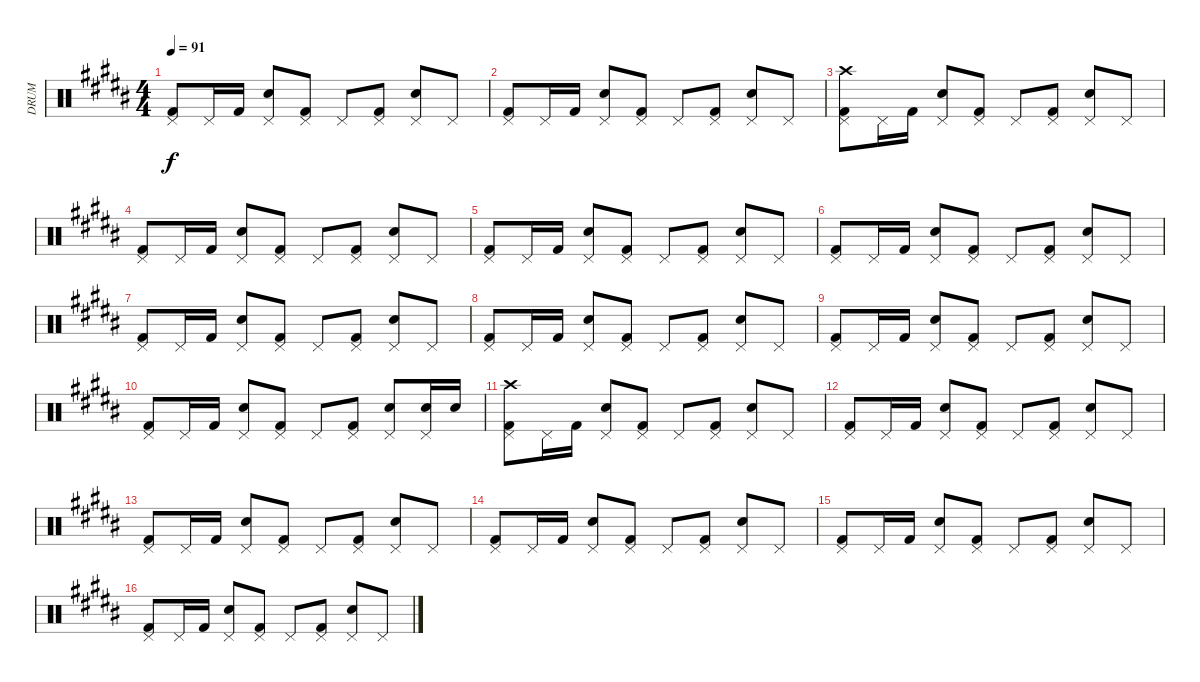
\track ("DRUM" "DRUM") {instrument percussion}
\staff {score}
\articulation defaults
\ts (4 4)
\tempo 91
\clef neutral
\ks b
("Pedal Hi-Hat (hit)" "Kick (hit) 2").8{dy f} "Pedal Hi-Hat (hit)".16 "Kick (hit) 2".16 ("Pedal Hi-Hat (hit)" "Electric Snare (hit)").8 ("Pedal Hi-Hat (hit)" "Kick (hit) 2").8 "Pedal Hi-Hat (hit)".8 ("Pedal Hi-Hat (hit)" "Kick (hit) 2").8 ("Pedal Hi-Hat (hit)" "Electric Snare (hit)").8 "Pedal Hi-Hat (hit)".8 |
("Pedal Hi-Hat (hit)" "Kick (hit) 2").8 "Pedal Hi-Hat (hit)".16 "Kick (hit) 2".16 ("Pedal Hi-Hat (hit)" "Electric Snare (hit)").8 ("Pedal Hi-Hat (hit)" "Kick (hit) 2").8 "Pedal Hi-Hat (hit)".8 ("Pedal Hi-Hat (hit)" "Kick (hit) 2").8 ("Pedal Hi-Hat (hit)" "Electric Snare (hit)").8 "Pedal Hi-Hat (hit)".8 |
("Crash high (hit)" "Pedal Hi-Hat (hit)" "Kick (hit) 2").8 "Pedal Hi-Hat (hit)".16 "Kick (hit) 2".16 ("Pedal Hi-Hat (hit)" "Electric Snare (hit)").8 ("Pedal Hi-Hat (hit)" "Kick (hit) 2").8 "Pedal Hi-Hat (hit)".8 ("Pedal Hi-Hat (hit)" "Kick (hit) 2").8 ("Pedal Hi-Hat (hit)" "Electric Snare (hit)").8 "Pedal Hi-Hat (hit)".8 |
("Pedal Hi-Hat (hit)" "Kick (hit) 2").8 "Pedal Hi-Hat (hit)".16 "Kick (hit) 2".16 ("Pedal Hi-Hat (hit)" "Electric Snare (hit)").8 ("Pedal Hi-Hat (hit)" "Kick (hit) 2").8 "Pedal Hi-Hat (hit)".8 ("Pedal Hi-Hat (hit)" "Kick (hit) 2").8 ("Pedal Hi-Hat (hit)" "Electric Snare (hit)").8 "Pedal Hi-Hat (hit)".8 |
("Pedal Hi-Hat (hit)" "Kick (hit) 2").8 "Pedal Hi-Hat (hit)".16 "Kick (hit) 2".16 ("Pedal Hi-Hat (hit)" "Electric Snare (hit)").8 ("Pedal Hi-Hat (hit)" "Kick (hit) 2").8 "Pedal Hi-Hat (hit)".8 ("Pedal Hi-Hat (hit)" "Kick (hit) 2").8 ("Pedal Hi-Hat (hit)" "Electric Snare (hit)").8 "Pedal Hi-Hat (hit)".8 |
("Pedal Hi-Hat (hit)" "Kick (hit) 2").8 "Pedal Hi-Hat (hit)".16 "Kick (hit) 2".16 ("Pedal Hi-Hat (hit)" "Electric Snare (hit)").8 ("Pedal Hi-Hat (hit)" "Kick (hit) 2").8 "Pedal Hi-Hat (hit)".8 ("Pedal Hi-Hat (hit)" "Kick (hit) 2").8 ("Pedal Hi-Hat (hit)" "Electric Snare (hit)").8 "Pedal Hi-Hat (hit)".8 |
("Pedal Hi-Hat (hit)" "Kick (hit) 2").8 "Pedal Hi-Hat (hit)".16 "Kick (hit) 2".16 ("Pedal Hi-Hat (hit)" "Electric Snare (hit)").8 ("Pedal Hi-Hat (hit)" "Kick (hit) 2").8 "Pedal Hi-Hat (hit)".8 ("Pedal Hi-Hat (hit)" "Kick (hit) 2").8 ("Pedal Hi-Hat (hit)" "Electric Snare (hit)").8 "Pedal Hi-Hat (hit)".8 |
("Pedal Hi-Hat (hit)" "Kick (hit) 2").8 "Pedal Hi-Hat (hit)".16 "Kick (hit) 2".16 ("Pedal Hi-Hat (hit)" "Electric Snare (hit)").8 ("Pedal Hi-Hat (hit)" "Kick (hit) 2").8 "Pedal Hi-Hat (hit)".8 ("Pedal Hi-Hat (hit)" "Kick (hit) 2").8 ("Pedal Hi-Hat (hit)" "Electric Snare (hit)").8 "Pedal Hi-Hat (hit)".8 |
("Pedal Hi-Hat (hit)" "Kick (hit) 2").8 "Pedal Hi-Hat (hit)".16 "Kick (hit) 2".16 ("Pedal Hi-Hat (hit)" "Electric Snare (hit)").8 ("Pedal Hi-Hat (hit)" "Kick (hit) 2").8 "Pedal Hi-Hat (hit)".8 ("Pedal Hi-Hat (hit)" "Kick (hit) 2").8 ("Pedal Hi-Hat (hit)" "Electric Snare (hit)").8 "Pedal Hi-Hat (hit)".8 |
("Pedal Hi-Hat (hit)" "Kick (hit) 2").8 "Pedal Hi-Hat (hit)".16 "Kick (hit) 2".16 ("Pedal Hi-Hat (hit)" "Electric Snare (hit)").8 ("Pedal Hi-Hat (hit)" "Kick (hit) 2").8 "Pedal Hi-Hat (hit)".8 ("Pedal Hi-Hat (hit)" "Kick (hit) 2").8 ("Pedal Hi-Hat (hit)" "Electric Snare (hit)").8 ("Pedal Hi-Hat (hit)" "Electric Snare (hit)").16 "Electric Snare (hit)".16 |
("Crash high (hit)" "Pedal Hi-Hat (hit)" "Kick (hit) 2").8 "Pedal Hi-Hat (hit)".16 "Kick (hit) 2".16 ("Pedal Hi-Hat (hit)" "Electric Snare (hit)").8 ("Pedal Hi-Hat (hit)" "Kick (hit) 2").8 "Pedal Hi-Hat (hit)".8 ("Pedal Hi-Hat (hit)" "Kick (hit) 2").8 ("Pedal Hi-Hat (hit)" "Electric Snare (hit)").8 "Pedal Hi-Hat (hit)".8 |
("Pedal Hi-Hat (hit)" "Kick (hit) 2").8 "Pedal Hi-Hat (hit)".16 "Kick (hit) 2".16 ("Pedal Hi-Hat (hit)" "Electric Snare (hit)").8 ("Pedal Hi-Hat (hit)" "Kick (hit) 2").8 "Pedal Hi-Hat (hit)".8 ("Pedal Hi-Hat (hit)" "Kick (hit) 2").8 ("Pedal Hi-Hat (hit)" "Electric Snare (hit)").8 "Pedal Hi-Hat (hit)".8 |
("Pedal Hi-Hat (hit)" "Kick (hit) 2").8 "Pedal Hi-Hat (hit)".16 "Kick (hit) 2".16 ("Pedal Hi-Hat (hit)" "Electric Snare (hit)").8 ("Pedal Hi-Hat (hit)" "Kick (hit) 2").8 "Pedal Hi-Hat (hit)".8 ("Pedal Hi-Hat (hit)" "Kick (hit) 2").8 ("Pedal Hi-Hat (hit)" "Electric Snare (hit)").8 "Pedal Hi-Hat (hit)".8 |
("Pedal Hi-Hat (hit)" "Kick (hit) 2").8 "Pedal Hi-Hat (hit)".16 "Kick (hit) 2".16 ("Pedal Hi-Hat (hit)" "Electric Snare (hit)").8 ("Pedal Hi-Hat (hit)" "Kick (hit) 2").8 "Pedal Hi-Hat (hit)".8 ("Pedal Hi-Hat (hit)" "Kick (hit) 2").8 ("Pedal Hi-Hat (hit)" "Electric Snare (hit)").8 "Pedal Hi-Hat (hit)".8 |
("Pedal Hi-Hat (hit)" "Kick (hit) 2").8 "Pedal Hi-Hat (hit)".16 "Kick (hit) 2".16 ("Pedal Hi-Hat (hit)" "Electric Snare (hit)").8 ("Pedal Hi-Hat (hit)" "Kick (hit) 2").8 "Pedal Hi-Hat (hit)".8 ("Pedal Hi-Hat (hit)" "Kick (hit) 2").8 ("Pedal Hi-Hat (hit)" "Electric Snare (hit)").8 "Pedal Hi-Hat (hit)".8 |
("Pedal Hi-Hat (hit)" "Kick (hit) 2").8 "Pedal Hi-Hat (hit)".16 "Kick (hit) 2".16 ("Pedal Hi-Hat (hit)" "Electric Snare (hit)").8 ("Pedal Hi-Hat (hit)" "Kick (hit) 2").8 "Pedal Hi-Hat (hit)".8 ("Pedal Hi-Hat (hit)" "Kick (hit) 2").8 ("Pedal Hi-Hat (hit)" "Electric Snare (hit)").8 "Pedal Hi-Hat (hit)".8
